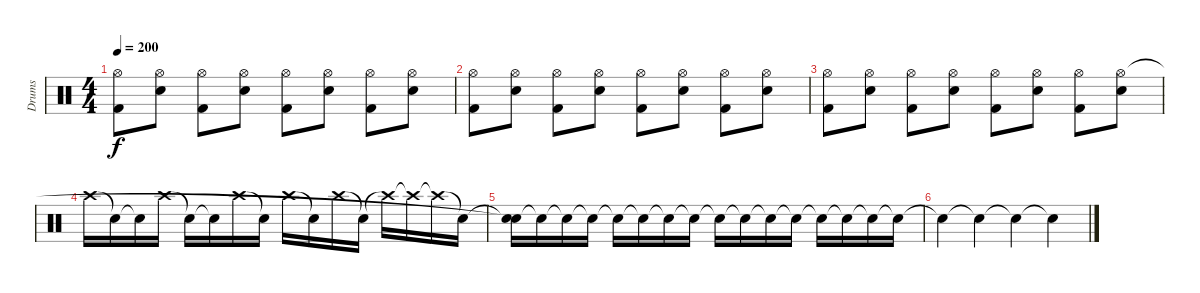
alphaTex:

\track ("Drums" "Drums") {instrument percussion}
\staff {score}
\articulation defaults
\ts (4 4)
\tempo 200
\clef neutral
\ks c
("Kick (hit) 2" "Hi-Hat (open)").8{dy f} ("Snare (hit) 2" "Hi-Hat (open)").8 ("Kick (hit) 2" "Hi-Hat (open)").8 ("Snare (hit) 2" "Hi-Hat (open)").8 ("Kick (hit) 2" "Hi-Hat (open)").8 ("Snare (hit) 2" "Hi-Hat (open)").8 ("Kick (hit) 2" "Hi-Hat (open)").8 ("Snare (hit) 2" "Hi-Hat (open)").8 |
("Kick (hit) 2" "Hi-Hat (open)").8 ("Snare (hit) 2" "Hi-Hat (open)").8 ("Kick (hit) 2" "Hi-Hat (open)").8 ("Snare (hit) 2" "Hi-Hat (open)").8 ("Kick (hit) 2" "Hi-Hat (open)").8 ("Snare (hit) 2" "Hi-Hat (open)").8 ("Kick (hit) 2" "Hi-Hat (open)").8 ("Snare (hit) 2" "Hi-Hat (open)").8 |
("Kick (hit) 2" "Hi-Hat (open)").8 ("Snare (hit) 2" "Hi-Hat (open)").8 ("Kick (hit) 2" "Hi-Hat (open)").8 ("Snare (hit) 2" "Hi-Hat (open)").8 ("Kick (hit) 2" "Hi-Hat (open)").8 ("Snare (hit) 2" "Hi-Hat (open)").8 ("Kick (hit) 2" "Hi-Hat (open)").8 ("Snare (hit) 2" "Hi-Hat (open)").8 |
"Crash high (hit)".16 "Snare (hit)"{t}.16 "Snare (hit)"{t}.16 "Crash high (hit)".16 "Snare (hit)"{t}.16 "Snare (hit)"{t}.16 "Crash high (hit)".16 "Snare (hit)"{t}.16 "Crash high (hit)".16 "Snare (hit)"{t}.16 "Crash high (hit)".16 "Snare (hit)"{t}.16 "Crash high (hit)"{t}.16 "Crash high (hit)"{t}.16 "Crash high (hit)"{t}.16 "Snare (hit)"{t}.16 |
("Snare (hit)"{t} "Snare (hit)"{t}).16 "Snare (hit)"{t}.16 "Snare (hit)"{t}.16 "Snare (hit)"{t}.16 "Snare (hit)"{t}.16 "Snare (hit)"{t}.16 "Snare (hit)"{t}.16 "Snare (hit)"{t}.16 "Snare (hit)"{t}.16 "Snare (hit)"{t}.16 "Snare (hit)"{t}.16 "Snare (hit)"{t}.16 "Snare (hit)"{t}.16 "Snare (hit)"{t}.16 "Snare (hit)"{t}.16 "Snare (hit)"{t}.16 |
"Snare (hit)"{t}.4 "Snare (hit)"{t}.4 "Snare (hit)"{t}.4 "Snare (hit)"{t}.4
